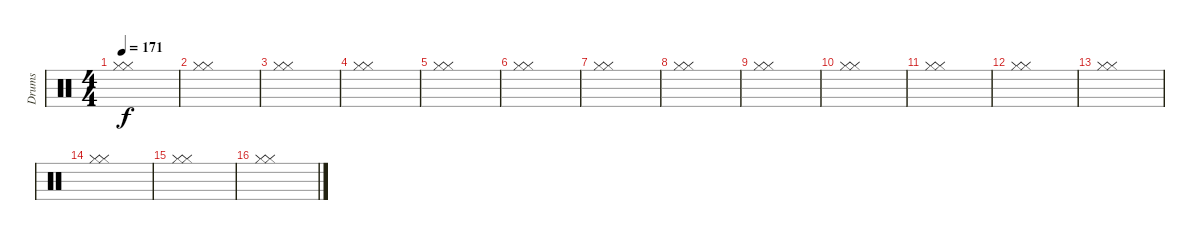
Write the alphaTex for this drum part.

\track ("Drums" "Drums") {instrument percussion}
\staff {score}
\articulation defaults
\ts (4 4)
\tempo 171
\clef neutral
\ks c
("Hi-Hat (closed)" "Hi-Hat (closed)").1{dy f} |
("Hi-Hat (closed)" "Hi-Hat (closed)").1 |
("Hi-Hat (closed)" "Hi-Hat (closed)").1 |
("Hi-Hat (closed)" "Hi-Hat (closed)").1 |
("Hi-Hat (closed)" "Hi-Hat (closed)").1 |
("Hi-Hat (closed)" "Hi-Hat (closed)").1 |
("Hi-Hat (closed)" "Hi-Hat (closed)").1 |
("Hi-Hat (closed)" "Hi-Hat (closed)").1 |
("Hi-Hat (closed)" "Hi-Hat (closed)").1 |
("Hi-Hat (closed)" "Hi-Hat (closed)").1 |
("Hi-Hat (closed)" "Hi-Hat (closed)").1 |
("Hi-Hat (closed)" "Hi-Hat (closed)").1 |
("Hi-Hat (closed)" "Hi-Hat (closed)").1 |
("Hi-Hat (closed)" "Hi-Hat (closed)").1 |
("Hi-Hat (closed)" "Hi-Hat (closed)").1 |
("Hi-Hat (closed)" "Hi-Hat (closed)").1
